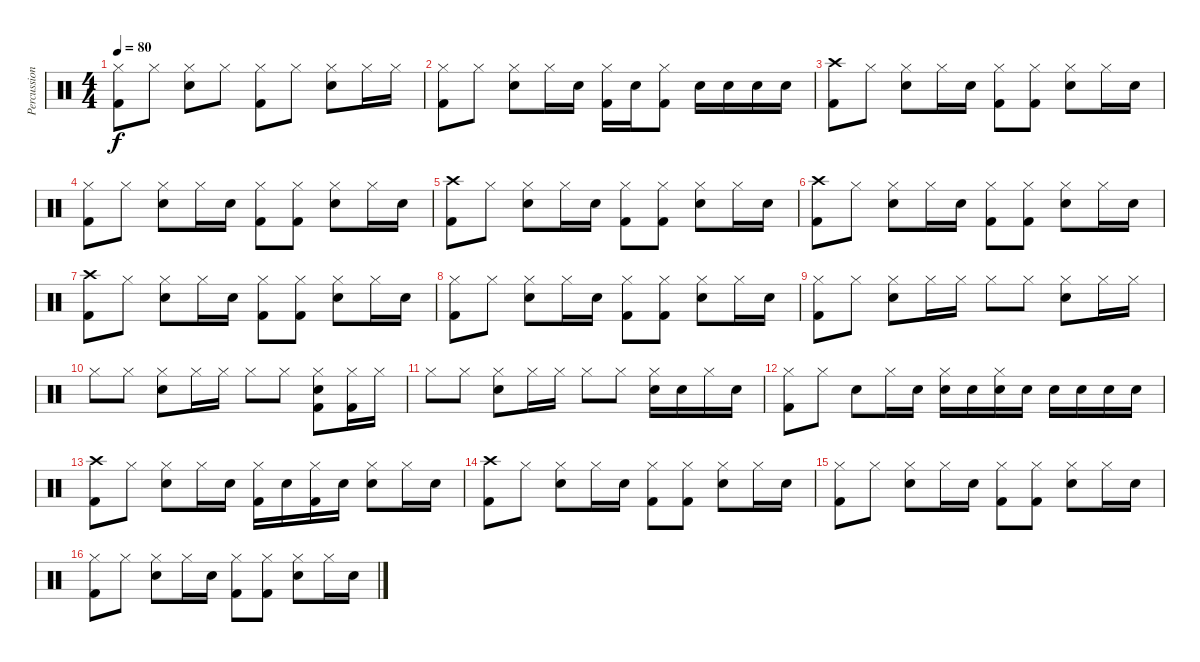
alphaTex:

\track ("Percussion" "Percussion") {instrument percussion}
\staff {score}
\articulation defaults
\ts (4 4)
\tempo 80
\clef neutral
\ks c
("Kick (hit) 2" "Hi-Hat (closed)").8{dy f} "Hi-Hat (closed)".8 ("Snare (hit) 2" "Hi-Hat (closed)").8 "Hi-Hat (closed)".8 ("Kick (hit) 2" "Hi-Hat (closed)").8 "Hi-Hat (closed)".8 ("Snare (hit) 2" "Hi-Hat (closed)").8 "Hi-Hat (closed)".16 "Hi-Hat (closed)".16 |
("Kick (hit) 2" "Hi-Hat (closed)").8 "Hi-Hat (closed)".8 ("Snare (hit) 2" "Hi-Hat (closed)").8 "Hi-Hat (closed)".16 "Snare (hit) 2".16 ("Kick (hit) 2" "Hi-Hat (closed)").16 "Snare (hit) 2".16 ("Kick (hit) 2" "Hi-Hat (closed)").8 "Snare (hit) 2".16 "Snare (hit) 2".16 "Snare (hit) 2".16 "Snare (hit) 2".16 |
("Kick (hit) 2" "Crash high (hit)").8 "Hi-Hat (closed)".8 ("Snare (hit) 2" "Hi-Hat (closed)").8 "Hi-Hat (closed)".16 "Snare (hit) 2".16 ("Kick (hit) 2" "Hi-Hat (closed)").8 ("Kick (hit) 2" "Hi-Hat (closed)").8 ("Snare (hit) 2" "Hi-Hat (closed)").8 "Hi-Hat (closed)".16 "Snare (hit) 2".16 |
("Kick (hit) 2" "Hi-Hat (closed)").8 "Hi-Hat (closed)".8 ("Snare (hit) 2" "Hi-Hat (closed)").8 "Hi-Hat (closed)".16 "Snare (hit) 2".16 ("Kick (hit) 2" "Hi-Hat (closed)").8 ("Kick (hit) 2" "Hi-Hat (closed)").8 ("Snare (hit) 2" "Hi-Hat (closed)").8 "Hi-Hat (closed)".16 "Snare (hit) 2".16 |
("Kick (hit) 2" "Crash high (hit)").8 "Hi-Hat (closed)".8 ("Snare (hit) 2" "Hi-Hat (closed)").8 "Hi-Hat (closed)".16 "Snare (hit) 2".16 ("Kick (hit) 2" "Hi-Hat (closed)").8 ("Kick (hit) 2" "Hi-Hat (closed)").8 ("Snare (hit) 2" "Hi-Hat (closed)").8 "Hi-Hat (closed)".16 "Snare (hit) 2".16 |
("Kick (hit) 2" "Crash high (hit)").8 "Hi-Hat (closed)".8 ("Snare (hit) 2" "Hi-Hat (closed)").8 "Hi-Hat (closed)".16 "Snare (hit) 2".16 ("Kick (hit) 2" "Hi-Hat (closed)").8 ("Kick (hit) 2" "Hi-Hat (closed)").8 ("Snare (hit) 2" "Hi-Hat (closed)").8 "Hi-Hat (closed)".16 "Snare (hit) 2".16 |
("Kick (hit) 2" "Crash high (hit)").8 "Hi-Hat (closed)".8 ("Snare (hit) 2" "Hi-Hat (closed)").8 "Hi-Hat (closed)".16 "Snare (hit) 2".16 ("Kick (hit) 2" "Hi-Hat (closed)").8 ("Kick (hit) 2" "Hi-Hat (closed)").8 ("Snare (hit) 2" "Hi-Hat (closed)").8 "Hi-Hat (closed)".16 "Snare (hit) 2".16 |
("Kick (hit) 2" "Hi-Hat (closed)").8 "Hi-Hat (closed)".8 ("Snare (hit) 2" "Hi-Hat (closed)").8 "Hi-Hat (closed)".16 "Snare (hit) 2".16 ("Kick (hit) 2" "Hi-Hat (closed)").8 ("Kick (hit) 2" "Hi-Hat (closed)").8 ("Snare (hit) 2" "Hi-Hat (closed)").8 "Hi-Hat (closed)".16 "Snare (hit) 2".16 |
("Kick (hit) 2" "Hi-Hat (closed)").8 "Hi-Hat (closed)".8 ("Snare (hit) 2" "Hi-Hat (closed)").8 "Hi-Hat (closed)".16 "Hi-Hat (closed)".16 "Hi-Hat (closed)".8 "Hi-Hat (closed)".8 ("Snare (hit) 2" "Hi-Hat (closed)").8 "Hi-Hat (closed)".16 "Hi-Hat (closed)".16 |
"Hi-Hat (closed)".8 "Hi-Hat (closed)".8 ("Snare (hit) 2" "Hi-Hat (closed)").8 "Hi-Hat (closed)".16 "Hi-Hat (closed)".16 "Hi-Hat (closed)".8 "Hi-Hat (closed)".8 ("Kick (hit) 2" "Snare (hit) 2" "Hi-Hat (closed)").8 ("Kick (hit) 2" "Hi-Hat (closed)").16 "Hi-Hat (closed)".16 |
"Hi-Hat (closed)".8 "Hi-Hat (closed)".8 ("Snare (hit) 2" "Hi-Hat (closed)").8 "Hi-Hat (closed)".16 "Hi-Hat (closed)".16 "Hi-Hat (closed)".8 "Hi-Hat (closed)".8 ("Snare (hit) 2" "Hi-Hat (closed)").16 "Snare (hit) 2".16 "Hi-Hat (closed)".16 "Snare (hit) 2".16 |
("Kick (hit) 2" "Hi-Hat (closed)").8 "Hi-Hat (closed)".8 "Snare (hit) 2".8 "Hi-Hat (closed)".16 "Snare (hit) 2".16 ("Snare (hit) 2" "Hi-Hat (closed)").16 "Snare (hit) 2".16 ("Snare (hit) 2" "Hi-Hat (closed)").16 "Snare (hit) 2".16 "Snare (hit) 2".16 "Snare (hit) 2".16 "Snare (hit) 2".16 "Snare (hit) 2".16 |
("Kick (hit) 2" "Crash high (hit)").8 "Hi-Hat (closed)".8 ("Snare (hit) 2" "Hi-Hat (closed)").8 "Hi-Hat (closed)".16 "Snare (hit) 2".16 ("Kick (hit) 2" "Hi-Hat (closed)").16 "Snare (hit) 2".16 ("Kick (hit) 2" "Hi-Hat (closed)").16 "Snare (hit) 2".16 ("Snare (hit) 2" "Hi-Hat (closed)").8 "Hi-Hat (closed)".16 "Snare (hit) 2".16 |
("Kick (hit) 2" "Crash high (hit)").8 "Hi-Hat (closed)".8 ("Snare (hit) 2" "Hi-Hat (closed)").8 "Hi-Hat (closed)".16 "Snare (hit) 2".16 ("Kick (hit) 2" "Hi-Hat (closed)").8 ("Kick (hit) 2" "Hi-Hat (closed)").8 ("Snare (hit) 2" "Hi-Hat (closed)").8 "Hi-Hat (closed)".16 "Snare (hit) 2".16 |
("Kick (hit) 2" "Hi-Hat (closed)").8 "Hi-Hat (closed)".8 ("Snare (hit) 2" "Hi-Hat (closed)").8 "Hi-Hat (closed)".16 "Snare (hit) 2".16 ("Kick (hit) 2" "Hi-Hat (closed)").8 ("Kick (hit) 2" "Hi-Hat (closed)").8 ("Snare (hit) 2" "Hi-Hat (closed)").8 "Hi-Hat (closed)".16 "Snare (hit) 2".16 |
("Kick (hit) 2" "Hi-Hat (closed)").8 "Hi-Hat (closed)".8 ("Snare (hit) 2" "Hi-Hat (closed)").8 "Hi-Hat (closed)".16 "Snare (hit) 2".16 ("Kick (hit) 2" "Hi-Hat (closed)").8 ("Kick (hit) 2" "Hi-Hat (closed)").8 ("Snare (hit) 2" "Hi-Hat (closed)").8 "Hi-Hat (closed)".16 "Snare (hit) 2".16
